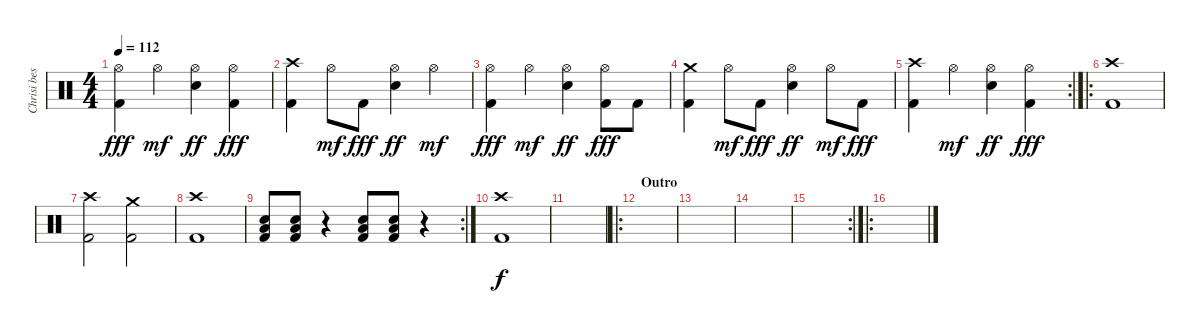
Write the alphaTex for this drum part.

\track ("Chrisi bestimmt" "Chrisi bes") {instrument percussion}
\staff {score}
\articulation defaults
\ts (4 4)
\tempo 112
\clef neutral
\ks c
("Hi-Hat (open)" "Kick (hit) 2").4{dy fff} "Hi-Hat (open)".4{dy mf} ("Hi-Hat (open)" "Electric Snare (hit)").4{dy ff} ("Hi-Hat (open)" "Kick (hit) 2").4{dy fff} |
("Crash high (hit)" "Kick (hit) 2").4 "Hi-Hat (open)".8{dy mf} "Kick (hit) 2".8{dy fff} ("Hi-Hat (open)" "Electric Snare (hit)").4{dy ff} "Hi-Hat (open)".4{dy mf} |
("Hi-Hat (open)" "Kick (hit) 2").4{dy fff} "Hi-Hat (open)".4{dy mf} ("Hi-Hat (open)" "Electric Snare (hit)").4{dy ff} ("Hi-Hat (open)" "Kick (hit) 2").8{dy fff} "Kick (hit) 2".8 |
("Crash medium (hit)" "Kick (hit) 2").4 "Hi-Hat (open)".8{dy mf} "Kick (hit) 2".8{dy fff} ("Hi-Hat (open)" "Electric Snare (hit)").4{dy ff} "Hi-Hat (open)".8{dy mf} "Kick (hit) 2".8{dy fff} |
\rc 2
("Crash high (hit)" "Kick (hit) 2").4 "Hi-Hat (open)".4{dy mf} ("Hi-Hat (open)" "Electric Snare (hit)").4{dy ff} ("Hi-Hat (open)" "Kick (hit) 2").4{dy fff} |
\ro
("Crash high (hit)" "Kick (hit) 2").1 |
("Crash high (hit)" "Kick (hit) 2").2 ("Crash medium (hit)" "Kick (hit) 2").2 |
("Crash high (hit)" "Kick (hit) 2").1 |
\rc 2
("Low Floor Tom (hit)" "Electric Snare (hit)" "Kick (hit) 2").8 ("Low Floor Tom (hit)" "Electric Snare (hit)" "Kick (hit) 2").8 r.4 ("Low Floor Tom (hit)" "Electric Snare (hit)" "Kick (hit) 2").8 ("Low Floor Tom (hit)" "Electric Snare (hit)" "Kick (hit) 2").8 r.4 |
("Crash high (hit)" "Kick (hit) 2").1{dy f} |
|
\ro
\section ("" "Outro")
|
|
|
\rc 2
|
\ro
